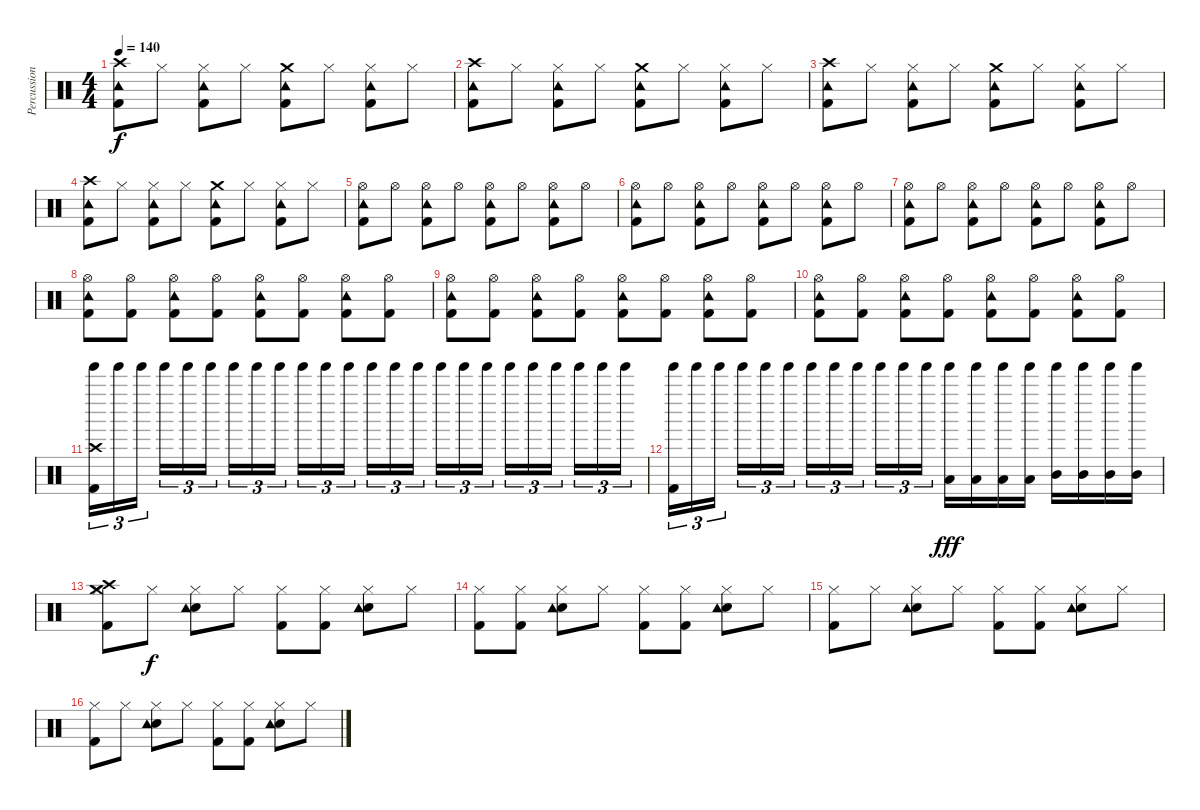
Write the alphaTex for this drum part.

\track ("Percussion" "Percussion") {instrument percussion}
\staff {score}
\articulation defaults
\ts (4 4)
\tempo 140
\clef neutral
\ks c
("Crash high (hit)" "Tambourine (hit)" "Kick (hit) 2").8{dy f} "Hi-Hat (closed)".8 ("Hi-Hat (closed)" "Tambourine (hit)" "Kick (hit) 2").8 "Hi-Hat (closed)".8 ("Crash medium (hit)" "Tambourine (hit)" "Kick (hit) 2").8 "Hi-Hat (closed)".8 ("Hi-Hat (closed)" "Tambourine (hit)" "Kick (hit) 2").8 "Hi-Hat (closed)".8 |
("Crash high (hit)" "Tambourine (hit)" "Kick (hit) 2").8 "Hi-Hat (closed)".8 ("Hi-Hat (closed)" "Tambourine (hit)" "Kick (hit) 2").8 "Hi-Hat (closed)".8 ("Crash medium (hit)" "Tambourine (hit)" "Kick (hit) 2").8 "Hi-Hat (closed)".8 ("Hi-Hat (closed)" "Tambourine (hit)" "Kick (hit) 2").8 "Hi-Hat (closed)".8 |
("Crash high (hit)" "Tambourine (hit)" "Kick (hit) 2").8 "Hi-Hat (closed)".8 ("Hi-Hat (closed)" "Tambourine (hit)" "Kick (hit) 2").8 "Hi-Hat (closed)".8 ("Crash medium (hit)" "Tambourine (hit)" "Kick (hit) 2").8 "Hi-Hat (closed)".8 ("Hi-Hat (closed)" "Tambourine (hit)" "Kick (hit) 2").8 "Hi-Hat (closed)".8 |
("Crash high (hit)" "Tambourine (hit)" "Kick (hit) 2").8 "Hi-Hat (closed)".8 ("Hi-Hat (closed)" "Tambourine (hit)" "Kick (hit) 2").8 "Hi-Hat (closed)".8 ("Crash medium (hit)" "Tambourine (hit)" "Kick (hit) 2").8 "Hi-Hat (closed)".8 ("Hi-Hat (closed)" "Tambourine (hit)" "Kick (hit) 2").8 "Hi-Hat (closed)".8 |
("Hi-Hat (open)" "Tambourine (hit)" "Kick (hit) 2").8 "Hi-Hat (open)".8 ("Hi-Hat (open)" "Tambourine (hit)" "Kick (hit) 2").8 "Hi-Hat (open)".8 ("Hi-Hat (open)" "Tambourine (hit)" "Kick (hit) 2").8 "Hi-Hat (open)".8 ("Hi-Hat (open)" "Tambourine (hit)" "Kick (hit) 2").8 "Hi-Hat (open)".8 |
("Hi-Hat (open)" "Tambourine (hit)" "Kick (hit) 2").8 "Hi-Hat (open)".8 ("Hi-Hat (open)" "Tambourine (hit)" "Kick (hit) 2").8 "Hi-Hat (open)".8 ("Hi-Hat (open)" "Tambourine (hit)" "Kick (hit) 2").8 "Hi-Hat (open)".8 ("Hi-Hat (open)" "Tambourine (hit)" "Kick (hit) 2").8 "Hi-Hat (open)".8 |
("Hi-Hat (open)" "Tambourine (hit)" "Kick (hit) 2").8 "Hi-Hat (open)".8 ("Hi-Hat (open)" "Tambourine (hit)" "Kick (hit) 2").8 "Hi-Hat (open)".8 ("Hi-Hat (open)" "Tambourine (hit)" "Kick (hit) 2").8 "Hi-Hat (open)".8 ("Hi-Hat (open)" "Tambourine (hit)" "Kick (hit) 2").8 "Hi-Hat (open)".8 |
("Hi-Hat (open)" "Tambourine (hit)" "Kick (hit) 2").8 ("Hi-Hat (open)" "Kick (hit) 2").8 ("Hi-Hat (open)" "Tambourine (hit)" "Kick (hit) 2").8 ("Hi-Hat (open)" "Kick (hit) 2").8 ("Hi-Hat (open)" "Tambourine (hit)" "Kick (hit) 2").8 ("Hi-Hat (open)" "Kick (hit) 2").8 ("Hi-Hat (open)" "Tambourine (hit)" "Kick (hit) 2").8 ("Hi-Hat (open)" "Kick (hit) 2").8 |
("Hi-Hat (open)" "Tambourine (hit)" "Kick (hit) 2").8 ("Hi-Hat (open)" "Kick (hit) 2").8 ("Hi-Hat (open)" "Tambourine (hit)" "Kick (hit) 2").8 ("Hi-Hat (open)" "Kick (hit) 2").8 ("Hi-Hat (open)" "Tambourine (hit)" "Kick (hit) 2").8 ("Hi-Hat (open)" "Kick (hit) 2").8 ("Hi-Hat (open)" "Tambourine (hit)" "Kick (hit) 2").8 ("Hi-Hat (open)" "Kick (hit) 2").8 |
("Hi-Hat (open)" "Tambourine (hit)" "Kick (hit) 2").8 ("Hi-Hat (open)" "Kick (hit) 2").8 ("Hi-Hat (open)" "Tambourine (hit)" "Kick (hit) 2").8 ("Hi-Hat (open)" "Kick (hit) 2").8 ("Hi-Hat (open)" "Tambourine (hit)" "Kick (hit) 2").8 ("Hi-Hat (open)" "Kick (hit) 2").8 ("Hi-Hat (open)" "Tambourine (hit)" "Kick (hit) 2").8 ("Hi-Hat (open)" "Kick (hit) 2").8 |
("Tinkle Bell (hit)" "Crash high (hit)" "Kick (hit) 2").16{tu (3 2)} "Tinkle Bell (hit)".16{tu (3 2)} "Tinkle Bell (hit)".16{tu (3 2)} "Tinkle Bell (hit)".16{tu (3 2)} "Tinkle Bell (hit)".16{tu (3 2)} "Tinkle Bell (hit)".16{tu (3 2)} "Tinkle Bell (hit)".16{tu (3 2)} "Tinkle Bell (hit)".16{tu (3 2)} "Tinkle Bell (hit)".16{tu (3 2)} "Tinkle Bell (hit)".16{tu (3 2)} "Tinkle Bell (hit)".16{tu (3 2)} "Tinkle Bell (hit)".16{tu (3 2)} "Tinkle Bell (hit)".16{tu (3 2)} "Tinkle Bell (hit)".16{tu (3 2)} "Tinkle Bell (hit)".16{tu (3 2)} "Tinkle Bell (hit)".16{tu (3 2)} "Tinkle Bell (hit)".16{tu (3 2)} "Tinkle Bell (hit)".16{tu (3 2)} "Tinkle Bell (hit)".16{tu (3 2)} "Tinkle Bell (hit)".16{tu (3 2)} "Tinkle Bell (hit)".16{tu (3 2)} "Tinkle Bell (hit)".16{tu (3 2)} "Tinkle Bell (hit)".16{tu (3 2)} "Tinkle Bell (hit)".16{tu (3 2)} |
("Tinkle Bell (hit)" "Kick (hit) 2").16{tu (3 2)} "Tinkle Bell (hit)".16{tu (3 2)} "Tinkle Bell (hit)".16{tu (3 2)} "Tinkle Bell (hit)".16{tu (3 2)} "Tinkle Bell (hit)".16{tu (3 2)} "Tinkle Bell (hit)".16{tu (3 2)} "Tinkle Bell (hit)".16{tu (3 2)} "Tinkle Bell (hit)".16{tu (3 2)} "Tinkle Bell (hit)".16{tu (3 2)} "Tinkle Bell (hit)".16{tu (3 2)} "Tinkle Bell (hit)".16{tu (3 2)} "Tinkle Bell (hit)".16{tu (3 2)} ("Tinkle Bell (hit)" "Low Floor Tom (hit)").16{dy fff} ("Tinkle Bell (hit)" "Low Floor Tom (hit)").16 ("Tinkle Bell (hit)" "Low Floor Tom (hit)").16 ("Tinkle Bell (hit)" "Low Floor Tom (hit)").16 ("Tinkle Bell (hit)" "Mid Tom (hit)").16 ("Tinkle Bell (hit)" "Mid Tom (hit)").16 ("Tinkle Bell (hit)" "Mid Tom (hit)").16 ("Tinkle Bell (hit)" "Mid Tom (hit)").16 |
("Hi-Hat (closed)" "Crash high (hit)" "Crash medium (hit)" "Kick (hit) 2").8 "Hi-Hat (closed)".8{dy f} ("Hi-Hat (closed)" "Snare (hit) 2" "Tambourine (hit)").8 "Hi-Hat (closed)".8 ("Hi-Hat (closed)" "Kick (hit) 2").8 ("Hi-Hat (closed)" "Kick (hit) 2").8 ("Hi-Hat (closed)" "Snare (hit) 2" "Tambourine (hit)").8 "Hi-Hat (closed)".8 |
("Hi-Hat (closed)" "Kick (hit) 2").8 ("Hi-Hat (closed)" "Kick (hit) 2").8 ("Hi-Hat (closed)" "Snare (hit) 2" "Tambourine (hit)").8 "Hi-Hat (closed)".8 ("Hi-Hat (closed)" "Kick (hit) 2").8 ("Hi-Hat (closed)" "Kick (hit) 2").8 ("Hi-Hat (closed)" "Snare (hit) 2" "Tambourine (hit)").8 "Hi-Hat (closed)".8 |
("Hi-Hat (closed)" "Kick (hit) 2").8 "Hi-Hat (closed)".8 ("Hi-Hat (closed)" "Snare (hit) 2" "Tambourine (hit)").8 "Hi-Hat (closed)".8 ("Hi-Hat (closed)" "Kick (hit) 2").8 ("Hi-Hat (closed)" "Kick (hit) 2").8 ("Hi-Hat (closed)" "Snare (hit) 2" "Tambourine (hit)").8 "Hi-Hat (closed)".8 |
("Hi-Hat (closed)" "Kick (hit) 2").8 "Hi-Hat (closed)".8 ("Hi-Hat (closed)" "Snare (hit) 2" "Tambourine (hit)").8 "Hi-Hat (closed)".8 ("Hi-Hat (closed)" "Kick (hit) 2").8 ("Hi-Hat (closed)" "Kick (hit) 2").8 ("Hi-Hat (closed)" "Snare (hit) 2" "Tambourine (hit)").8 "Hi-Hat (closed)".8
